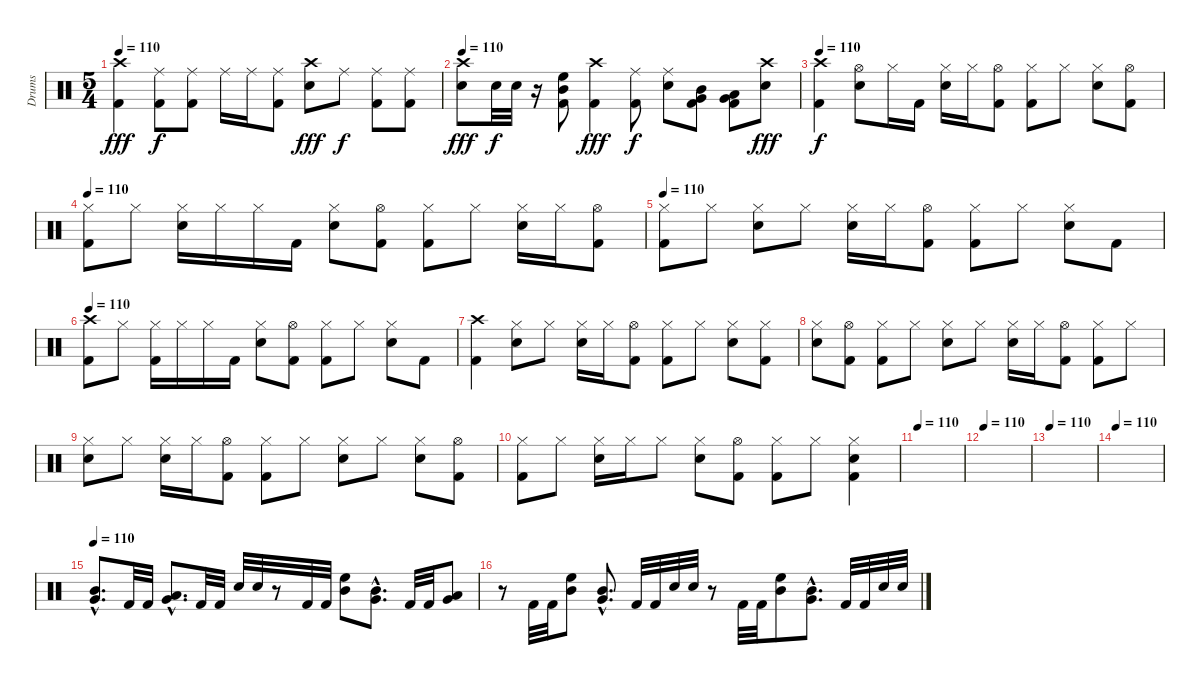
\track ("Drums" "Drums") {instrument percussion}
\staff {score}
\articulation defaults
\ts (5 4)
\tempo 110
\clef neutral
\ks c
("Crash high (hit)" "Kick (hit) 2").4{dy fff} ("Ride (middle)" "Kick (hit) 2").8{dy f} ("Ride (middle)" "Kick (hit) 2").8 "Ride (middle)".16 "Ride (middle)".16 ("Ride (middle)" "Kick (hit) 2").8 ("Crash high (hit)" "Snare (hit) 2").8{dy fff} "Ride (middle)".8{dy f} ("Ride (middle)" "Kick (hit) 2").8 ("Ride (middle)" "Kick (hit) 2").8 |
\tempo 110
("Crash high (hit)" "Snare (hit) 2").8{dy fff} "Snare (hit) 2".32{dy f} "Snare (hit) 2".32 r.16 ("Mid Tom (hit)" "High Floor Tom (hit)" "Kick (hit) 2").8 ("Crash high (hit)" "Kick (hit) 2").4{dy fff} ("Ride (middle)" "Kick (hit) 2").8{dy f} ("Ride (middle)" "Snare (hit) 2").8 ("Kick (hit) 2" "Mid Tom (hit)" "Very Low Tom (hit)").8 ("Very Low Tom (hit)" "Low Floor Tom (hit)" "Kick (hit) 2").8 ("Crash high (hit)" "Snare (hit) 2").8{dy fff} |
\tempo 110
("Crash high (hit)" "Kick (hit) 2").4{dy f} ("Hi-Hat (open)" "Snare (hit) 2").8 "Hi-Hat (closed)".16 "Kick (hit) 2".16 ("Hi-Hat (closed)" "Snare (hit) 2").16 "Hi-Hat (closed)".16 ("Hi-Hat (open)" "Kick (hit) 2").8 ("Hi-Hat (closed)" "Kick (hit) 2").8 "Hi-Hat (closed)".8 ("Hi-Hat (closed)" "Snare (hit) 2").8 ("Hi-Hat (open)" "Kick (hit) 2").8 |
\tempo 110
("Hi-Hat (closed)" "Kick (hit) 2").8 "Hi-Hat (closed)".8 ("Hi-Hat (closed)" "Snare (hit) 2").16 "Hi-Hat (closed)".16 "Hi-Hat (closed)".16 "Kick (hit) 2".16 ("Hi-Hat (closed)" "Snare (hit) 2").8 ("Hi-Hat (open)" "Kick (hit) 2").8 ("Hi-Hat (closed)" "Kick (hit) 2").8 "Hi-Hat (closed)".8 ("Hi-Hat (closed)" "Snare (hit) 2").16 "Hi-Hat (closed)".16 ("Hi-Hat (open)" "Kick (hit) 2").8 |
\tempo 110
("Hi-Hat (closed)" "Kick (hit) 2").8 "Hi-Hat (closed)".8 ("Hi-Hat (closed)" "Snare (hit) 2").8 "Hi-Hat (closed)".8 ("Hi-Hat (closed)" "Snare (hit) 2").16 "Hi-Hat (closed)".16 ("Hi-Hat (open)" "Kick (hit) 2").8 ("Hi-Hat (closed)" "Kick (hit) 2").8 "Hi-Hat (closed)".8 ("Hi-Hat (closed)" "Snare (hit) 2").8 "Kick (hit) 2".8 |
\tempo 110
("Crash high (hit)" "Kick (hit) 2").8 "Hi-Hat (closed)".8 ("Hi-Hat (closed)" "Kick (hit) 2").16 "Hi-Hat (closed)".16 "Hi-Hat (closed)".16 "Kick (hit) 2".16 ("Hi-Hat (closed)" "Snare (hit) 2").8 ("Hi-Hat (open)" "Kick (hit) 2").8 ("Hi-Hat (closed)" "Kick (hit) 2").8 "Hi-Hat (closed)".8 ("Hi-Hat (closed)" "Snare (hit) 2").8 "Kick (hit) 2".8 |
("Crash high (hit)" "Kick (hit) 2").4 ("Hi-Hat (closed)" "Snare (hit) 2").8 "Hi-Hat (closed)".8 ("Hi-Hat (closed)" "Snare (hit) 2").16 "Hi-Hat (closed)".16 ("Hi-Hat (open)" "Kick (hit) 2").8 ("Hi-Hat (closed)" "Kick (hit) 2").8 "Hi-Hat (closed)".8 ("Hi-Hat (closed)" "Snare (hit) 2").8 ("Hi-Hat (closed)" "Kick (hit) 2").8 |
("Hi-Hat (closed)" "Snare (hit) 2").8 ("Hi-Hat (open)" "Kick (hit) 2").8 ("Hi-Hat (closed)" "Kick (hit) 2").8 "Hi-Hat (closed)".8 ("Hi-Hat (closed)" "Snare (hit) 2").8 "Hi-Hat (closed)".8 ("Hi-Hat (closed)" "Snare (hit) 2").16 "Hi-Hat (closed)".16 ("Hi-Hat (open)" "Kick (hit) 2").8 ("Hi-Hat (closed)" "Kick (hit) 2").8 "Hi-Hat (closed)".8 |
("Hi-Hat (closed)" "Snare (hit) 2").8 "Hi-Hat (closed)".8 ("Hi-Hat (closed)" "Snare (hit) 2").16 "Hi-Hat (closed)".16 ("Hi-Hat (open)" "Kick (hit) 2").8 ("Hi-Hat (closed)" "Kick (hit) 2").8 "Hi-Hat (closed)".8 ("Hi-Hat (closed)" "Snare (hit) 2").8 "Hi-Hat (closed)".8 ("Hi-Hat (closed)" "Snare (hit) 2").8 ("Hi-Hat (open)" "Kick (hit) 2").8 |
("Hi-Hat (closed)" "Kick (hit) 2").8 "Hi-Hat (closed)".8 ("Hi-Hat (closed)" "Snare (hit) 2").16 "Hi-Hat (closed)".16 "Hi-Hat (closed)".8 ("Hi-Hat (closed)" "Snare (hit) 2").8 ("Hi-Hat (open)" "Kick (hit) 2").8 ("Hi-Hat (closed)" "Kick (hit) 2").8 "Hi-Hat (closed)".8 ("Hi-Hat (closed)" "Snare (hit) 2" "Kick (hit) 2").4 |
\tempo 110
|
\tempo 110
|
\tempo 110
|
\tempo 110
|
\tempo 110
("Mid Tom (hit)"{hac} "Very Low Tom (hit)"{hac}).8{d} "Kick (hit) 2".32 "Kick (hit) 2".32 ("Very Low Tom (hit)"{hac} "Low Floor Tom (hit)"{hac}).8{d} "Kick (hit) 2".32 "Kick (hit) 2".32 "Snare (hit) 2".32 "Snare (hit) 2".32 r.8 "Kick (hit) 2".32 "Kick (hit) 2".32 ("High Floor Tom (hit)" "Mid Tom (hit)").8 ("Mid Tom (hit)"{hac} "Very Low Tom (hit)"{hac}).8{d} "Kick (hit) 2".32 "Kick (hit) 2".32 ("Very Low Tom (hit)" "Low Floor Tom (hit)").8 |
r.8 "Kick (hit) 2".32 "Kick (hit) 2".32 ("High Floor Tom (hit)" "Mid Tom (hit)").8 ("Mid Tom (hit)"{hac} "Very Low Tom (hit)"{hac}).8{d} "Kick (hit) 2".32 "Kick (hit) 2".32 "Snare (hit) 2".32 "Snare (hit) 2".32 r.8 "Kick (hit) 2".32 "Kick (hit) 2".32 ("High Floor Tom (hit)" "Mid Tom (hit)").8 ("Mid Tom (hit)"{hac} "Very Low Tom (hit)"{hac}).8{d} "Kick (hit) 2".32 "Kick (hit) 2".32 "Snare (hit) 2".32 "Snare (hit) 2".32
